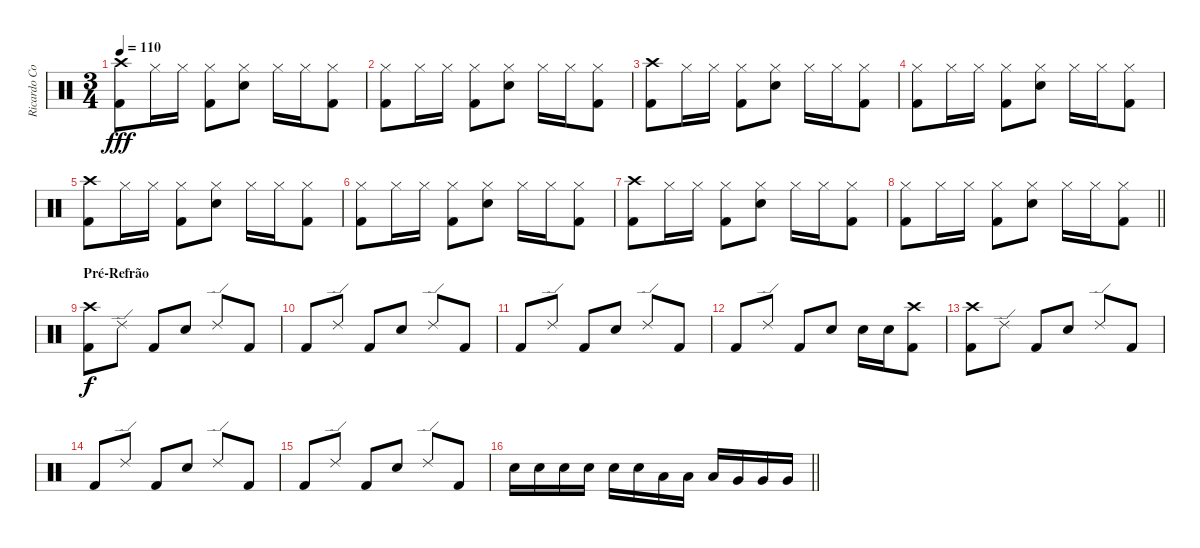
\track ("Ricardo Confessori" "Ricardo Co") {instrument percussion}
\staff {score}
\articulation defaults
\ts (3 4)
\tempo 110
\clef neutral
\ks c
("Crash high (hit)" "Kick (hit) 2").8{dy fff} "Hi-Hat (closed)".16 "Hi-Hat (closed)".16 ("Hi-Hat (closed)" "Kick (hit) 2").8 ("Hi-Hat (closed)" "Electric Snare (hit)").8 "Hi-Hat (closed)".16 "Hi-Hat (closed)".16 ("Hi-Hat (closed)" "Kick (hit) 2").8 |
("Hi-Hat (closed)" "Kick (hit) 2").8 "Hi-Hat (closed)".16 "Hi-Hat (closed)".16 ("Hi-Hat (closed)" "Kick (hit) 2").8 ("Hi-Hat (closed)" "Electric Snare (hit)").8 "Hi-Hat (closed)".16 "Hi-Hat (closed)".16 ("Hi-Hat (closed)" "Kick (hit) 2").8 |
("Crash high (hit)" "Kick (hit) 2").8 "Hi-Hat (closed)".16 "Hi-Hat (closed)".16 ("Hi-Hat (closed)" "Kick (hit) 2").8 ("Hi-Hat (closed)" "Electric Snare (hit)").8 "Hi-Hat (closed)".16 "Hi-Hat (closed)".16 ("Hi-Hat (closed)" "Kick (hit) 2").8 |
("Hi-Hat (closed)" "Kick (hit) 2").8 "Hi-Hat (closed)".16 "Hi-Hat (closed)".16 ("Hi-Hat (closed)" "Kick (hit) 2").8 ("Hi-Hat (closed)" "Electric Snare (hit)").8 "Hi-Hat (closed)".16 "Hi-Hat (closed)".16 ("Hi-Hat (closed)" "Kick (hit) 2").8 |
("Crash high (hit)" "Kick (hit) 2").8 "Hi-Hat (closed)".16 "Hi-Hat (closed)".16 ("Hi-Hat (closed)" "Kick (hit) 2").8 ("Hi-Hat (closed)" "Electric Snare (hit)").8 "Hi-Hat (closed)".16 "Hi-Hat (closed)".16 ("Hi-Hat (closed)" "Kick (hit) 2").8 |
("Hi-Hat (closed)" "Kick (hit) 2").8 "Hi-Hat (closed)".16 "Hi-Hat (closed)".16 ("Hi-Hat (closed)" "Kick (hit) 2").8 ("Hi-Hat (closed)" "Electric Snare (hit)").8 "Hi-Hat (closed)".16 "Hi-Hat (closed)".16 ("Hi-Hat (closed)" "Kick (hit) 2").8 |
("Crash high (hit)" "Kick (hit) 2").8 "Hi-Hat (closed)".16 "Hi-Hat (closed)".16 ("Hi-Hat (closed)" "Kick (hit) 2").8 ("Hi-Hat (closed)" "Electric Snare (hit)").8 "Hi-Hat (closed)".16 "Hi-Hat (closed)".16 ("Hi-Hat (closed)" "Kick (hit) 2").8 |
\barLineRight lightlight
("Hi-Hat (closed)" "Kick (hit) 2").8 "Hi-Hat (closed)".16 "Hi-Hat (closed)".16 ("Hi-Hat (closed)" "Kick (hit) 2").8 ("Hi-Hat (closed)" "Electric Snare (hit)").8 "Hi-Hat (closed)".16 "Hi-Hat (closed)".16 ("Hi-Hat (closed)" "Kick (hit) 2").8 |
\section ("" "Pré-Refrão")
("Crash high (hit)" "Kick (hit) 2").8{dy f} "Ride (edge) 2".8 "Kick (hit) 2".8 "Electric Snare (hit)".8 "Ride (edge) 2".8 "Kick (hit) 2".8 |
"Kick (hit) 2".8 "Ride (edge) 2".8 "Kick (hit) 2".8 "Electric Snare (hit)".8 "Ride (edge) 2".8 "Kick (hit) 2".8 |
"Kick (hit) 2".8 "Ride (edge) 2".8 "Kick (hit) 2".8 "Electric Snare (hit)".8 "Ride (edge) 2".8 "Kick (hit) 2".8 |
"Kick (hit) 2".8 "Ride (edge) 2".8 "Kick (hit) 2".8 "Electric Snare (hit)".8 "Electric Snare (hit)".16 "Electric Snare (hit)".16 ("Crash high (hit)" "Kick (hit) 2").8 |
("Crash high (hit)" "Kick (hit) 2").8 "Ride (edge) 2".8 "Kick (hit) 2".8 "Electric Snare (hit)".8 "Ride (edge) 2".8 "Kick (hit) 2".8 |
"Kick (hit) 2".8 "Ride (edge) 2".8 "Kick (hit) 2".8 "Electric Snare (hit)".8 "Ride (edge) 2".8 "Kick (hit) 2".8 |
"Kick (hit) 2".8 "Ride (edge) 2".8 "Kick (hit) 2".8 "Electric Snare (hit)".8 "Ride (edge) 2".8 "Kick (hit) 2".8 |
\barLineRight lightlight "Electric Snare (hit)".16 "Electric Snare (hit)".16 "Electric Snare (hit)".16 "Electric Snare (hit)".16 "Electric Snare (hit)".16 "Electric Snare (hit)".16 "Low Tom (hit)".16 "Low Tom (hit)".16 "Low Tom (hit)".16 "Very Low Tom (hit)".16 "Very Low Tom (hit)".16 "Very Low Tom (hit)".16
